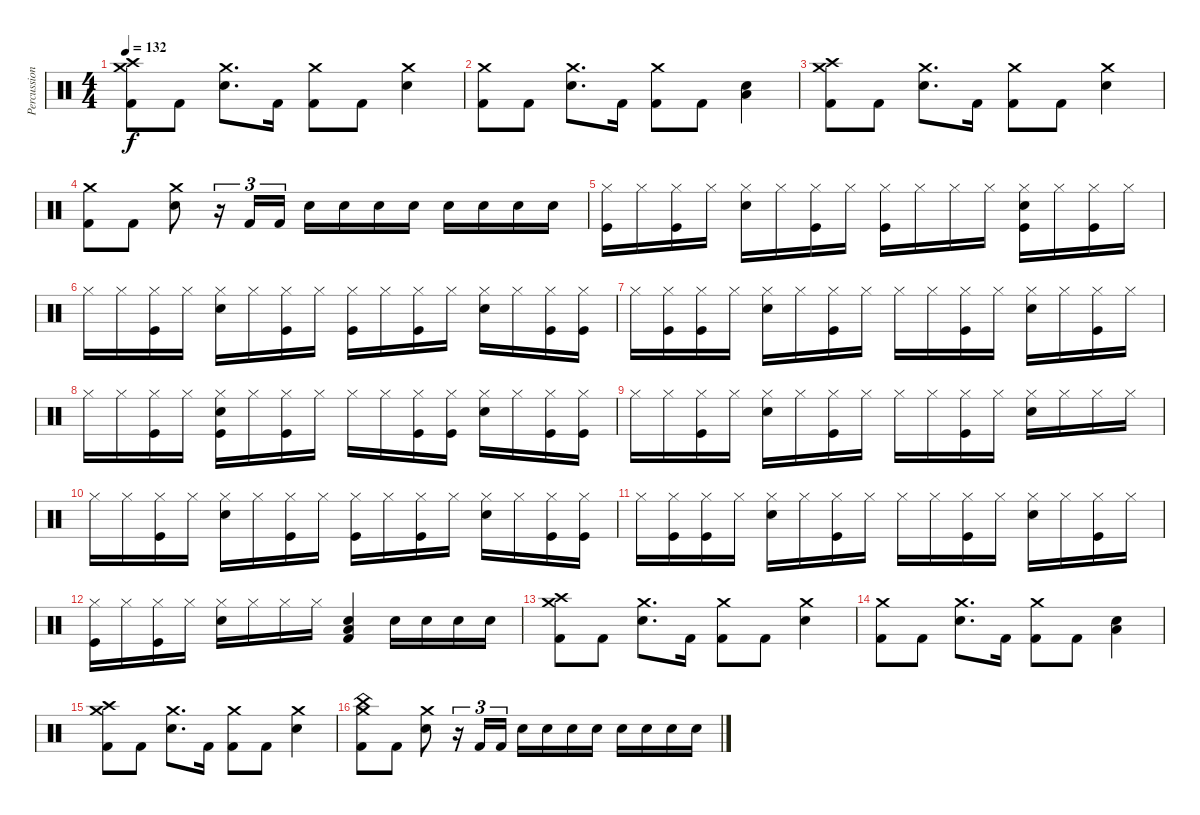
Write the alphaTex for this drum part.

\track ("Percussion" "Percussion") {instrument percussion}
\staff {score}
\articulation defaults
\ts (4 4)
\tempo 132
\clef neutral
\ks c
("Crash medium (hit)" "Crash high (hit)" "Kick (hit) 2").8{dy f} "Kick (hit) 2".8 ("Crash medium (hit)" "Electric Snare (hit)").8{d} "Kick (hit) 2".16 ("Crash medium (hit)" "Kick (hit) 2").8 "Kick (hit) 2".8 ("Crash medium (hit)" "Electric Snare (hit)").4 |
("Crash medium (hit)" "Kick (hit) 2").8 "Kick (hit) 2".8 ("Crash medium (hit)" "Electric Snare (hit)").8{d} "Kick (hit) 2".16 ("Crash medium (hit)" "Kick (hit) 2").8 "Kick (hit) 2".8 ("Electric Snare (hit)" "Low Floor Tom (hit)").4 |
("Crash medium (hit)" "Crash high (hit)" "Kick (hit) 2").8 "Kick (hit) 2".8 ("Crash medium (hit)" "Electric Snare (hit)").8{d} "Kick (hit) 2".16 ("Crash medium (hit)" "Kick (hit) 2").8 "Kick (hit) 2".8 ("Crash medium (hit)" "Electric Snare (hit)").4 |
("Crash medium (hit)" "Kick (hit) 2").8 "Kick (hit) 2".8 ("Crash medium (hit)" "Electric Snare (hit)").8 r.16{tu (3 2)} "Kick (hit) 2".16{tu (3 2)} "Kick (hit) 2".16{tu (3 2)} "Electric Snare (hit)".16 "Electric Snare (hit)".16 "Electric Snare (hit)".16 "Electric Snare (hit)".16 "Electric Snare (hit)".16 "Electric Snare (hit)".16 "Electric Snare (hit)".16 "Electric Snare (hit)".16 |
("Hi-Hat (closed)" "Kick (hit)").16 "Hi-Hat (closed)".16 ("Hi-Hat (closed)" "Kick (hit)").16 "Hi-Hat (closed)".16 ("Hi-Hat (closed)" "Hand Clap (hit)").16 "Hi-Hat (closed)".16 ("Hi-Hat (closed)" "Kick (hit)").16 "Hi-Hat (closed)".16 ("Hi-Hat (closed)" "Kick (hit)").16 "Hi-Hat (closed)".16 "Hi-Hat (closed)".16 "Hi-Hat (closed)".16 ("Hi-Hat (closed)" "Hand Clap (hit)" "Kick (hit)").16 "Hi-Hat (closed)".16 ("Hi-Hat (closed)" "Kick (hit)").16 "Hi-Hat (closed)".16 |
"Hi-Hat (closed)".16 "Hi-Hat (closed)".16 ("Hi-Hat (closed)" "Kick (hit)").16 "Hi-Hat (closed)".16 ("Hi-Hat (closed)" "Hand Clap (hit)").16 "Hi-Hat (closed)".16 ("Hi-Hat (closed)" "Kick (hit)").16 "Hi-Hat (closed)".16 ("Hi-Hat (closed)" "Kick (hit)").16 "Hi-Hat (closed)".16 ("Hi-Hat (closed)" "Kick (hit)").16 "Hi-Hat (closed)".16 ("Hi-Hat (closed)" "Hand Clap (hit)").16 "Hi-Hat (closed)".16 ("Hi-Hat (closed)" "Kick (hit)").16 ("Hi-Hat (closed)" "Kick (hit)").16 |
"Hi-Hat (closed)".16 ("Hi-Hat (closed)" "Kick (hit)").16 ("Hi-Hat (closed)" "Kick (hit)").16 "Hi-Hat (closed)".16 ("Hi-Hat (closed)" "Hand Clap (hit)").16 "Hi-Hat (closed)".16 ("Hi-Hat (closed)" "Kick (hit)").16 "Hi-Hat (closed)".16 "Hi-Hat (closed)".16 "Hi-Hat (closed)".16 ("Hi-Hat (closed)" "Kick (hit)").16 "Hi-Hat (closed)".16 ("Hi-Hat (closed)" "Hand Clap (hit)").16 "Hi-Hat (closed)".16 ("Hi-Hat (closed)" "Kick (hit)").16 "Hi-Hat (closed)".16 |
"Hi-Hat (closed)".16 "Hi-Hat (closed)".16 ("Hi-Hat (closed)" "Kick (hit)").16 "Hi-Hat (closed)".16 ("Hi-Hat (closed)" "Hand Clap (hit)" "Kick (hit)").16 "Hi-Hat (closed)".16 ("Hi-Hat (closed)" "Kick (hit)").16 "Hi-Hat (closed)".16 "Hi-Hat (closed)".16 "Hi-Hat (closed)".16 ("Hi-Hat (closed)" "Kick (hit)").16 ("Hi-Hat (closed)" "Kick (hit)").16 ("Hi-Hat (closed)" "Hand Clap (hit)").16 "Hi-Hat (closed)".16 ("Hi-Hat (closed)" "Kick (hit)").16 ("Hi-Hat (closed)" "Kick (hit)").16 |
"Hi-Hat (closed)".16 "Hi-Hat (closed)".16 ("Hi-Hat (closed)" "Kick (hit)").16 "Hi-Hat (closed)".16 ("Hi-Hat (closed)" "Hand Clap (hit)").16 "Hi-Hat (closed)".16 ("Hi-Hat (closed)" "Kick (hit)").16 "Hi-Hat (closed)".16 "Hi-Hat (closed)".16 "Hi-Hat (closed)".16 ("Hi-Hat (closed)" "Kick (hit)").16 "Hi-Hat (closed)".16 ("Hi-Hat (closed)" "Hand Clap (hit)").16 "Hi-Hat (closed)".16 "Hi-Hat (closed)".16 "Hi-Hat (closed)".16 |
"Hi-Hat (closed)".16 "Hi-Hat (closed)".16 ("Hi-Hat (closed)" "Kick (hit)").16 "Hi-Hat (closed)".16 ("Hi-Hat (closed)" "Hand Clap (hit)").16 "Hi-Hat (closed)".16 ("Hi-Hat (closed)" "Kick (hit)").16 "Hi-Hat (closed)".16 ("Hi-Hat (closed)" "Kick (hit)").16 "Hi-Hat (closed)".16 ("Hi-Hat (closed)" "Kick (hit)").16 "Hi-Hat (closed)".16 ("Hi-Hat (closed)" "Hand Clap (hit)").16 "Hi-Hat (closed)".16 ("Hi-Hat (closed)" "Kick (hit)").16 ("Hi-Hat (closed)" "Kick (hit)").16 |
"Hi-Hat (closed)".16 ("Hi-Hat (closed)" "Kick (hit)").16 ("Hi-Hat (closed)" "Kick (hit)").16 "Hi-Hat (closed)".16 ("Hi-Hat (closed)" "Hand Clap (hit)").16 "Hi-Hat (closed)".16 ("Hi-Hat (closed)" "Kick (hit)").16 "Hi-Hat (closed)".16 "Hi-Hat (closed)".16 "Hi-Hat (closed)".16 ("Hi-Hat (closed)" "Kick (hit)").16 "Hi-Hat (closed)".16 ("Hi-Hat (closed)" "Hand Clap (hit)").16 "Hi-Hat (closed)".16 ("Hi-Hat (closed)" "Kick (hit)").16 "Hi-Hat (closed)".16 |
("Hi-Hat (closed)" "Kick (hit)").16 "Hi-Hat (closed)".16 ("Hi-Hat (closed)" "Kick (hit)").16 "Hi-Hat (closed)".16 ("Hi-Hat (closed)" "Hand Clap (hit)").16 "Hi-Hat (closed)".16 "Hi-Hat (closed)".16 "Hi-Hat (closed)".16 ("Electric Snare (hit)" "Low Floor Tom (hit)" "Kick (hit) 2").4 "Electric Snare (hit)".16 "Electric Snare (hit)".16 "Electric Snare (hit)".16 "Electric Snare (hit)".16 |
("Crash medium (hit)" "Crash high (hit)" "Kick (hit) 2").8 "Kick (hit) 2".8 ("Crash medium (hit)" "Electric Snare (hit)").8{d} "Kick (hit) 2".16 ("Crash medium (hit)" "Kick (hit) 2").8 "Kick (hit) 2".8 ("Crash medium (hit)" "Electric Snare (hit)").4 |
("Crash medium (hit)" "Kick (hit) 2").8 "Kick (hit) 2".8 ("Crash medium (hit)" "Electric Snare (hit)").8{d} "Kick (hit) 2".16 ("Crash medium (hit)" "Kick (hit) 2").8 "Kick (hit) 2".8 ("Electric Snare (hit)" "Low Floor Tom (hit)").4 |
("Crash medium (hit)" "Crash high (hit)" "Kick (hit) 2").8 "Kick (hit) 2".8 ("Crash medium (hit)" "Electric Snare (hit)").8{d} "Kick (hit) 2".16 ("Crash medium (hit)" "Kick (hit) 2").8 "Kick (hit) 2".8 ("Crash medium (hit)" "Electric Snare (hit)").4 |
("Crash medium (hit)" "China (hit)" "Kick (hit) 2").8 "Kick (hit) 2".8 ("Crash medium (hit)" "Electric Snare (hit)").8 r.16{tu (3 2)} "Kick (hit) 2".16{tu (3 2)} "Kick (hit) 2".16{tu (3 2)} "Electric Snare (hit)".16 "Electric Snare (hit)".16 "Electric Snare (hit)".16 "Electric Snare (hit)".16 "Electric Snare (hit)".16 "Electric Snare (hit)".16 "Electric Snare (hit)".16 "Electric Snare (hit)".16
